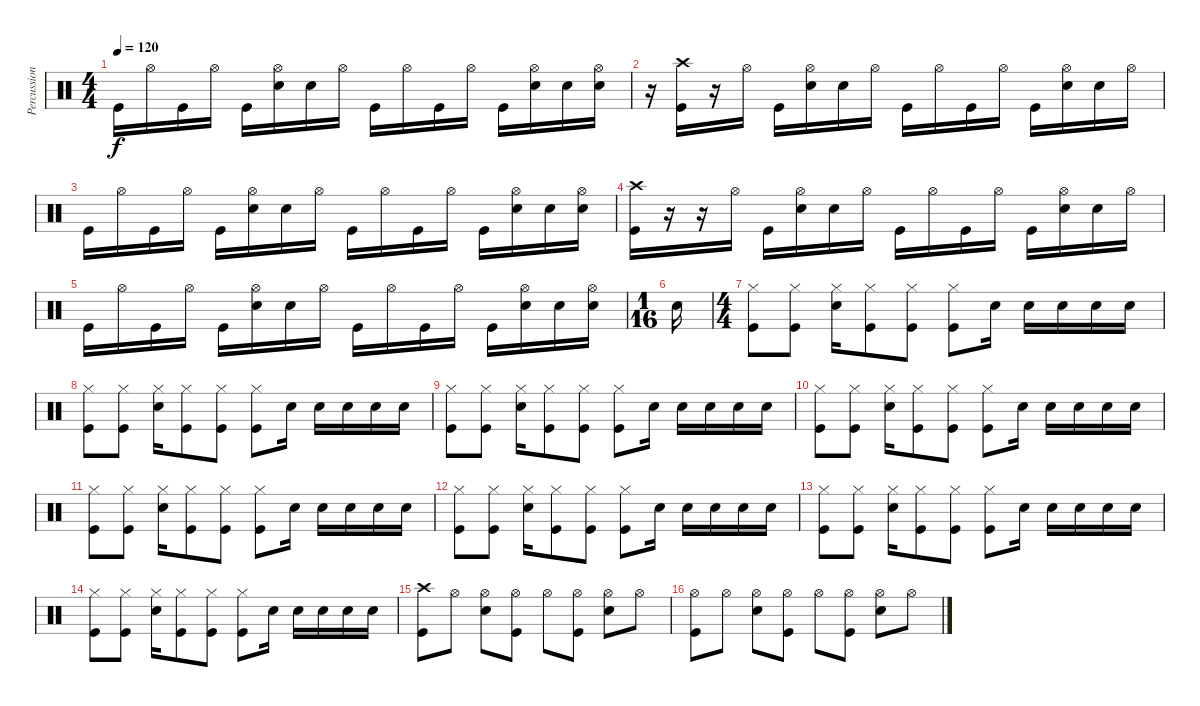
\track ("Percussion" "Percussion") {instrument percussion}
\staff {score}
\articulation defaults
\ts (4 4)
\tempo 120
\clef neutral
\ks c "Kick (hit)".16{dy f} "Hi-Hat (open)".16 "Kick (hit)".16 "Hi-Hat (open)".16 "Kick (hit)".16
("Hi-Hat (open)" "Snare (hit) 2").16 "Snare (hit) 2".16 "Hi-Hat (open)".16 "Kick (hit)".16 "Hi-Hat (open)".16 "Kick (hit)".16 "Hi-Hat (open)".16 "Kick (hit)".16 ("Hi-Hat (open)" "Snare (hit) 2").16 "Snare (hit) 2".16 ("Hi-Hat (open)" "Snare (hit) 2").16 |
r.16 ("Crash high (hit)" "Kick (hit)").16 r.16 "Hi-Hat (open)".16 "Kick (hit)".16 ("Hi-Hat (open)" "Snare (hit) 2").16 "Snare (hit) 2".16 "Hi-Hat (open)".16 "Kick (hit)".16 "Hi-Hat (open)".16 "Kick (hit)".16 "Hi-Hat (open)".16 "Kick (hit)".16 ("Hi-Hat (open)" "Snare (hit) 2").16 "Snare (hit) 2".16 "Hi-Hat (open)".16 |
"Kick (hit)".16 "Hi-Hat (open)".16 "Kick (hit)".16 "Hi-Hat (open)".16 "Kick (hit)".16 ("Hi-Hat (open)" "Snare (hit) 2").16 "Snare (hit) 2".16 "Hi-Hat (open)".16 "Kick (hit)".16 "Hi-Hat (open)".16 "Kick (hit)".16 "Hi-Hat (open)".16 "Kick (hit)".16 ("Hi-Hat (open)" "Snare (hit) 2").16 "Snare (hit) 2".16 ("Hi-Hat (open)" "Snare (hit) 2").16 |
("Crash high (hit)" "Kick (hit)").16 r.16 r.16 "Hi-Hat (open)".16 "Kick (hit)".16 ("Hi-Hat (open)" "Snare (hit) 2").16 "Snare (hit) 2".16 "Hi-Hat (open)".16 "Kick (hit)".16 "Hi-Hat (open)".16 "Kick (hit)".16 "Hi-Hat (open)".16 "Kick (hit)".16 ("Hi-Hat (open)" "Snare (hit) 2").16 "Snare (hit) 2".16 "Hi-Hat (open)".16 |
"Kick (hit)".16 "Hi-Hat (open)".16 "Kick (hit)".16 "Hi-Hat (open)".16 "Kick (hit)".16 ("Hi-Hat (open)" "Snare (hit) 2").16 "Snare (hit) 2".16 "Hi-Hat (open)".16 "Kick (hit)".16 "Hi-Hat (open)".16 "Kick (hit)".16 "Hi-Hat (open)".16 "Kick (hit)".16 ("Hi-Hat (open)" "Snare (hit) 2").16 "Snare (hit) 2".16 ("Hi-Hat (open)" "Snare (hit) 2").16 |
\ts (1 16)
"Snare (hit) 2".16 |
\ts (4 4)
("Hi-Hat (closed)" "Kick (hit)").8 ("Hi-Hat (closed)" "Kick (hit)").8 ("Hi-Hat (closed)" "Snare (hit) 2").16 ("Hi-Hat (closed)" "Kick (hit)").8 ("Hi-Hat (closed)" "Kick (hit)").8 ("Hi-Hat (closed)" "Kick (hit)").8 "Snare (hit) 2".16 "Snare (hit) 2".16 "Snare (hit) 2".16 "Snare (hit) 2".16 "Snare (hit) 2".16 |
("Hi-Hat (closed)" "Kick (hit)").8 ("Hi-Hat (closed)" "Kick (hit)").8 ("Hi-Hat (closed)" "Snare (hit) 2").16 ("Hi-Hat (closed)" "Kick (hit)").8 ("Hi-Hat (closed)" "Kick (hit)").8 ("Hi-Hat (closed)" "Kick (hit)").8 "Snare (hit) 2".16 "Snare (hit) 2".16 "Snare (hit) 2".16 "Snare (hit) 2".16 "Snare (hit) 2".16 |
("Hi-Hat (closed)" "Kick (hit)").8 ("Hi-Hat (closed)" "Kick (hit)").8 ("Hi-Hat (closed)" "Snare (hit) 2").16 ("Hi-Hat (closed)" "Kick (hit)").8 ("Hi-Hat (closed)" "Kick (hit)").8 ("Hi-Hat (closed)" "Kick (hit)").8 "Snare (hit) 2".16 "Snare (hit) 2".16 "Snare (hit) 2".16 "Snare (hit) 2".16 "Snare (hit) 2".16 |
("Hi-Hat (closed)" "Kick (hit)").8 ("Hi-Hat (closed)" "Kick (hit)").8 ("Hi-Hat (closed)" "Snare (hit) 2").16 ("Hi-Hat (closed)" "Kick (hit)").8 ("Hi-Hat (closed)" "Kick (hit)").8 ("Hi-Hat (closed)" "Kick (hit)").8 "Snare (hit) 2".16 "Snare (hit) 2".16 "Snare (hit) 2".16 "Snare (hit) 2".16 "Snare (hit) 2".16 |
("Hi-Hat (closed)" "Kick (hit)").8 ("Hi-Hat (closed)" "Kick (hit)").8 ("Hi-Hat (closed)" "Snare (hit) 2").16 ("Hi-Hat (closed)" "Kick (hit)").8 ("Hi-Hat (closed)" "Kick (hit)").8 ("Hi-Hat (closed)" "Kick (hit)").8 "Snare (hit) 2".16 "Snare (hit) 2".16 "Snare (hit) 2".16 "Snare (hit) 2".16 "Snare (hit) 2".16 |
("Hi-Hat (closed)" "Kick (hit)").8 ("Hi-Hat (closed)" "Kick (hit)").8 ("Hi-Hat (closed)" "Snare (hit) 2").16 ("Hi-Hat (closed)" "Kick (hit)").8 ("Hi-Hat (closed)" "Kick (hit)").8 ("Hi-Hat (closed)" "Kick (hit)").8 "Snare (hit) 2".16 "Snare (hit) 2".16 "Snare (hit) 2".16 "Snare (hit) 2".16 "Snare (hit) 2".16 |
("Hi-Hat (closed)" "Kick (hit)").8 ("Hi-Hat (closed)" "Kick (hit)").8 ("Hi-Hat (closed)" "Snare (hit) 2").16 ("Hi-Hat (closed)" "Kick (hit)").8 ("Hi-Hat (closed)" "Kick (hit)").8 ("Hi-Hat (closed)" "Kick (hit)").8 "Snare (hit) 2".16 "Snare (hit) 2".16 "Snare (hit) 2".16 "Snare (hit) 2".16 "Snare (hit) 2".16 |
("Hi-Hat (closed)" "Kick (hit)").8 ("Hi-Hat (closed)" "Kick (hit)").8 ("Hi-Hat (closed)" "Snare (hit) 2").16 ("Hi-Hat (closed)" "Kick (hit)").8 ("Hi-Hat (closed)" "Kick (hit)").8 ("Hi-Hat (closed)" "Kick (hit)").8 "Snare (hit) 2".16 "Snare (hit) 2".16 "Snare (hit) 2".16 "Snare (hit) 2".16 "Snare (hit) 2".16 |
("Crash high (hit)" "Kick (hit)").8 "Hi-Hat (open)".8 ("Hi-Hat (open)" "Snare (hit) 2").8 ("Hi-Hat (open)" "Kick (hit)").8 "Hi-Hat (open)".8 ("Hi-Hat (open)" "Kick (hit)").8 ("Hi-Hat (open)" "Snare (hit) 2").8 "Hi-Hat (open)".8 |
("Hi-Hat (open)" "Kick (hit)").8 "Hi-Hat (open)".8 ("Hi-Hat (open)" "Snare (hit) 2").8 ("Hi-Hat (open)" "Kick (hit)").8 "Hi-Hat (open)".8 ("Hi-Hat (open)" "Kick (hit)").8 ("Hi-Hat (open)" "Snare (hit) 2").8 "Hi-Hat (open)".8
